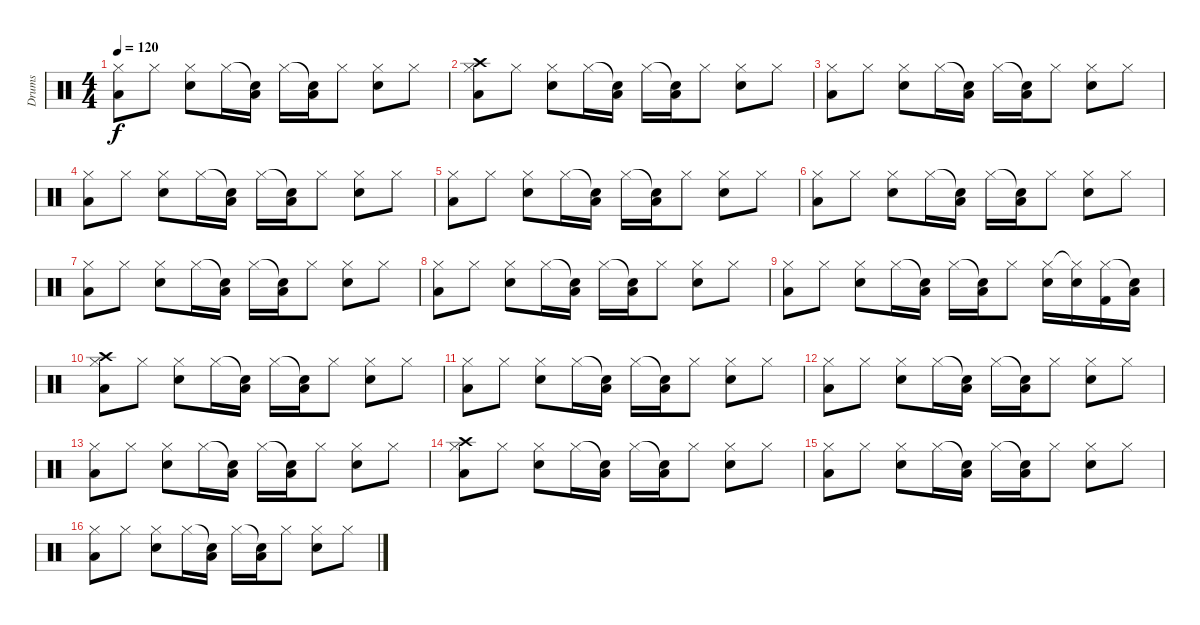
\track ("Drums" "Drums") {instrument percussion}
\staff {score}
\articulation defaults
\ts (4 4)
\tempo 120
\clef neutral
\ks c
("Hi-Hat (closed)" "Low Tom (hit)").8{dy f} "Hi-Hat (closed)".8 ("Hi-Hat (closed)" "Snare (hit) 2").8 "Hi-Hat (closed)".16 ("Snare (hit)"{t} "Low Tom (hit)").16 "Hi-Hat (closed)".16 ("Snare (hit)"{t} "Low Tom (hit)").16 "Hi-Hat (closed)".8 ("Hi-Hat (closed)" "Snare (hit) 2").8 "Hi-Hat (closed)".8 |
("Hi-Hat (closed)" "Low Tom (hit)" "Crash high (hit)").8 "Hi-Hat (closed)".8 ("Hi-Hat (closed)" "Snare (hit) 2").8 "Hi-Hat (closed)".16 ("Snare (hit)"{t} "Low Tom (hit)").16 "Hi-Hat (closed)".16 ("Snare (hit)"{t} "Low Tom (hit)").16 "Hi-Hat (closed)".8 ("Hi-Hat (closed)" "Snare (hit) 2").8 "Hi-Hat (closed)".8 |
("Hi-Hat (closed)" "Low Tom (hit)").8 "Hi-Hat (closed)".8 ("Hi-Hat (closed)" "Snare (hit) 2").8 "Hi-Hat (closed)".16 ("Snare (hit)"{t} "Low Tom (hit)").16 "Hi-Hat (closed)".16 ("Snare (hit)"{t} "Low Tom (hit)").16 "Hi-Hat (closed)".8 ("Hi-Hat (closed)" "Snare (hit) 2").8 "Hi-Hat (closed)".8 |
("Hi-Hat (closed)" "Low Tom (hit)").8 "Hi-Hat (closed)".8 ("Hi-Hat (closed)" "Snare (hit) 2").8 "Hi-Hat (closed)".16 ("Snare (hit)"{t} "Low Tom (hit)").16 "Hi-Hat (closed)".16 ("Snare (hit)"{t} "Low Tom (hit)").16 "Hi-Hat (closed)".8 ("Hi-Hat (closed)" "Snare (hit) 2").8 "Hi-Hat (closed)".8 |
("Hi-Hat (closed)" "Low Tom (hit)").8 "Hi-Hat (closed)".8 ("Hi-Hat (closed)" "Snare (hit) 2").8 "Hi-Hat (closed)".16 ("Snare (hit)"{t} "Low Tom (hit)").16 "Hi-Hat (closed)".16 ("Snare (hit)"{t} "Low Tom (hit)").16 "Hi-Hat (closed)".8 ("Hi-Hat (closed)" "Snare (hit) 2").8 "Hi-Hat (closed)".8 |
("Hi-Hat (closed)" "Low Tom (hit)").8 "Hi-Hat (closed)".8 ("Hi-Hat (closed)" "Snare (hit) 2").8 "Hi-Hat (closed)".16 ("Snare (hit)"{t} "Low Tom (hit)").16 "Hi-Hat (closed)".16 ("Snare (hit)"{t} "Low Tom (hit)").16 "Hi-Hat (closed)".8 ("Hi-Hat (closed)" "Snare (hit) 2").8 "Hi-Hat (closed)".8 |
("Hi-Hat (closed)" "Low Tom (hit)").8 "Hi-Hat (closed)".8 ("Hi-Hat (closed)" "Snare (hit) 2").8 "Hi-Hat (closed)".16 ("Snare (hit)"{t} "Low Tom (hit)").16 "Hi-Hat (closed)".16 ("Snare (hit)"{t} "Low Tom (hit)").16 "Hi-Hat (closed)".8 ("Hi-Hat (closed)" "Snare (hit) 2").8 "Hi-Hat (closed)".8 |
("Hi-Hat (closed)" "Low Tom (hit)").8 "Hi-Hat (closed)".8 ("Hi-Hat (closed)" "Snare (hit) 2").8 "Hi-Hat (closed)".16 ("Snare (hit)"{t} "Low Tom (hit)").16 "Hi-Hat (closed)".16 ("Snare (hit)"{t} "Low Tom (hit)").16 "Hi-Hat (closed)".8 ("Hi-Hat (closed)" "Snare (hit) 2").8 "Hi-Hat (closed)".8 |
("Hi-Hat (closed)" "Low Tom (hit)").8 "Hi-Hat (closed)".8 ("Hi-Hat (closed)" "Snare (hit) 2").8 "Hi-Hat (closed)".16 ("Snare (hit)"{t} "Low Tom (hit)").16 "Hi-Hat (closed)".16 ("Snare (hit)"{t} "Low Tom (hit)").16 "Hi-Hat (closed)".8 ("Hi-Hat (closed)" "Snare (hit) 2").16 ("Hi-Hat (closed)"{t} "Snare (hit) 2").16 ("Hi-Hat (closed)" "Kick (hit) 2").16 ("Snare (hit)"{t} "Low Tom (hit)").16 |
("Hi-Hat (closed)" "Low Tom (hit)" "Crash high (hit)").8 "Hi-Hat (closed)".8 ("Hi-Hat (closed)" "Snare (hit) 2").8 "Hi-Hat (closed)".16 ("Snare (hit)"{t} "Low Tom (hit)").16 "Hi-Hat (closed)".16 ("Snare (hit)"{t} "Low Tom (hit)").16 "Hi-Hat (closed)".8 ("Hi-Hat (closed)" "Snare (hit) 2").8 "Hi-Hat (closed)".8 |
("Hi-Hat (closed)" "Low Tom (hit)").8 "Hi-Hat (closed)".8 ("Hi-Hat (closed)" "Snare (hit) 2").8 "Hi-Hat (closed)".16 ("Snare (hit)"{t} "Low Tom (hit)").16 "Hi-Hat (closed)".16 ("Snare (hit)"{t} "Low Tom (hit)").16 "Hi-Hat (closed)".8 ("Hi-Hat (closed)" "Snare (hit) 2").8 "Hi-Hat (closed)".8 |
("Hi-Hat (closed)" "Low Tom (hit)").8 "Hi-Hat (closed)".8 ("Hi-Hat (closed)" "Snare (hit) 2").8 "Hi-Hat (closed)".16 ("Snare (hit)"{t} "Low Tom (hit)").16 "Hi-Hat (closed)".16 ("Snare (hit)"{t} "Low Tom (hit)").16 "Hi-Hat (closed)".8 ("Hi-Hat (closed)" "Snare (hit) 2").8 "Hi-Hat (closed)".8 |
("Hi-Hat (closed)" "Low Tom (hit)").8 "Hi-Hat (closed)".8 ("Hi-Hat (closed)" "Snare (hit) 2").8 "Hi-Hat (closed)".16 ("Snare (hit)"{t} "Low Tom (hit)").16 "Hi-Hat (closed)".16 ("Snare (hit)"{t} "Low Tom (hit)").16 "Hi-Hat (closed)".8 ("Hi-Hat (closed)" "Snare (hit) 2").8 "Hi-Hat (closed)".8 |
("Hi-Hat (closed)" "Low Tom (hit)" "Crash high (hit)").8 "Hi-Hat (closed)".8 ("Hi-Hat (closed)" "Snare (hit) 2").8 "Hi-Hat (closed)".16 ("Snare (hit)"{t} "Low Tom (hit)").16 "Hi-Hat (closed)".16 ("Snare (hit)"{t} "Low Tom (hit)").16 "Hi-Hat (closed)".8 ("Hi-Hat (closed)" "Snare (hit) 2").8 "Hi-Hat (closed)".8 |
("Hi-Hat (closed)" "Low Tom (hit)").8 "Hi-Hat (closed)".8 ("Hi-Hat (closed)" "Snare (hit) 2").8 "Hi-Hat (closed)".16 ("Snare (hit)"{t} "Low Tom (hit)").16 "Hi-Hat (closed)".16 ("Snare (hit)"{t} "Low Tom (hit)").16 "Hi-Hat (closed)".8 ("Hi-Hat (closed)" "Snare (hit) 2").8 "Hi-Hat (closed)".8 |
("Hi-Hat (closed)" "Low Tom (hit)").8 "Hi-Hat (closed)".8 ("Hi-Hat (closed)" "Snare (hit) 2").8 "Hi-Hat (closed)".16 ("Snare (hit)"{t} "Low Tom (hit)").16 "Hi-Hat (closed)".16 ("Snare (hit)"{t} "Low Tom (hit)").16 "Hi-Hat (closed)".8 ("Hi-Hat (closed)" "Snare (hit) 2").8 "Hi-Hat (closed)".8
